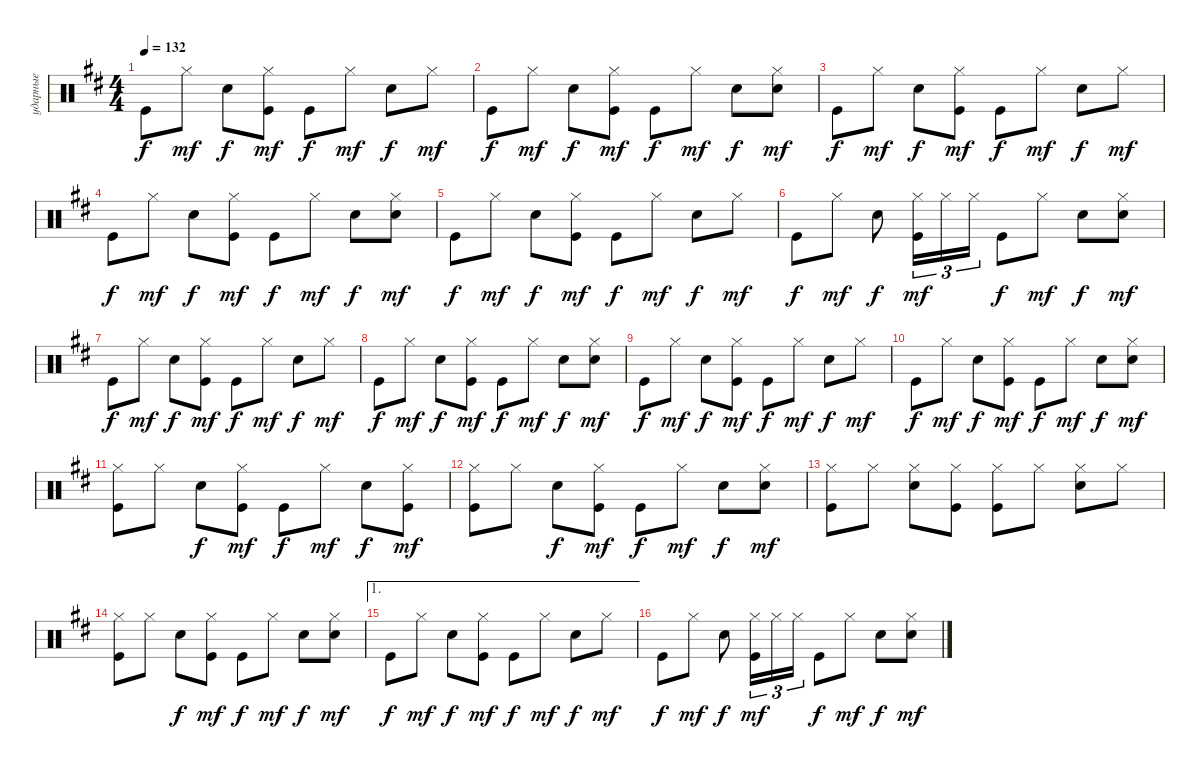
\track ("ударные" "ударные") {instrument percussion}
\staff {score}
\articulation defaults
\ts (4 4)
\tempo 132
\clef neutral
\ks d "Kick (hit)".8{dy f} "Hi-Hat (closed)".8{dy mf} "Snare (hit) 2".8{dy f}
("Kick (hit)" "Hi-Hat (closed)").8{dy mf} "Kick (hit)".8{dy f} "Hi-Hat (closed)".8{dy mf} "Snare (hit) 2".8{dy f} "Hi-Hat (closed)".8{dy mf} |
"Kick (hit)".8{dy f} "Hi-Hat (closed)".8{dy mf} "Snare (hit) 2".8{dy f} ("Kick (hit)" "Hi-Hat (closed)").8{dy mf} "Kick (hit)".8{dy f} "Hi-Hat (closed)".8{dy mf} "Snare (hit) 2".8{dy f} ("Hi-Hat (closed)" "Snare (hit) 2").8{dy mf} |
"Kick (hit)".8{dy f} "Hi-Hat (closed)".8{dy mf} "Snare (hit) 2".8{dy f} ("Kick (hit)" "Hi-Hat (closed)").8{dy mf} "Kick (hit)".8{dy f} "Hi-Hat (closed)".8{dy mf} "Snare (hit) 2".8{dy f} "Hi-Hat (closed)".8{dy mf} |
"Kick (hit)".8{dy f} "Hi-Hat (closed)".8{dy mf} "Snare (hit) 2".8{dy f} ("Kick (hit)" "Hi-Hat (closed)").8{dy mf} "Kick (hit)".8{dy f} "Hi-Hat (closed)".8{dy mf} "Snare (hit) 2".8{dy f} ("Hi-Hat (closed)" "Snare (hit) 2").8{dy mf} |
"Kick (hit)".8{dy f} "Hi-Hat (closed)".8{dy mf} "Snare (hit) 2".8{dy f} ("Kick (hit)" "Hi-Hat (closed)").8{dy mf} "Kick (hit)".8{dy f} "Hi-Hat (closed)".8{dy mf} "Snare (hit) 2".8{dy f} "Hi-Hat (closed)".8{dy mf} |
"Kick (hit)".8{dy f} "Hi-Hat (closed)".8{dy mf} "Snare (hit) 2".8{dy f} ("Kick (hit)" "Hi-Hat (closed)").16{tu (3 2) dy mf} "Hi-Hat (closed)".16{tu (3 2)} "Hi-Hat (closed)".16{tu (3 2)} "Kick (hit)".8{dy f} "Hi-Hat (closed)".8{dy mf} "Snare (hit) 2".8{dy f} ("Hi-Hat (closed)" "Snare (hit) 2").8{dy mf} |
"Kick (hit)".8{dy f} "Hi-Hat (closed)".8{dy mf} "Snare (hit) 2".8{dy f} ("Kick (hit)" "Hi-Hat (closed)").8{dy mf} "Kick (hit)".8{dy f} "Hi-Hat (closed)".8{dy mf} "Snare (hit) 2".8{dy f} "Hi-Hat (closed)".8{dy mf} |
"Kick (hit)".8{dy f} "Hi-Hat (closed)".8{dy mf} "Snare (hit) 2".8{dy f} ("Kick (hit)" "Hi-Hat (closed)").8{dy mf} "Kick (hit)".8{dy f} "Hi-Hat (closed)".8{dy mf} "Snare (hit) 2".8{dy f} ("Hi-Hat (closed)" "Snare (hit) 2").8{dy mf} |
"Kick (hit)".8{dy f} "Hi-Hat (closed)".8{dy mf} "Snare (hit) 2".8{dy f} ("Kick (hit)" "Hi-Hat (closed)").8{dy mf} "Kick (hit)".8{dy f} "Hi-Hat (closed)".8{dy mf} "Snare (hit) 2".8{dy f} "Hi-Hat (closed)".8{dy mf} |
"Kick (hit)".8{dy f} "Hi-Hat (closed)".8{dy mf} "Snare (hit) 2".8{dy f} ("Kick (hit)" "Hi-Hat (closed)").8{dy mf} "Kick (hit)".8{dy f} "Hi-Hat (closed)".8{dy mf} "Snare (hit) 2".8{dy f} ("Hi-Hat (closed)" "Snare (hit) 2").8{dy mf} |
("Kick (hit)" "Hi-Hat (closed)").8 "Hi-Hat (closed)".8 "Snare (hit) 2".8{dy f} ("Kick (hit)" "Hi-Hat (closed)").8{dy mf} "Kick (hit)".8{dy f} "Hi-Hat (closed)".8{dy mf} "Snare (hit) 2".8{dy f} ("Kick (hit)" "Hi-Hat (closed)").8{dy mf} |
("Kick (hit)" "Hi-Hat (closed)").8 "Hi-Hat (closed)".8 "Snare (hit) 2".8{dy f} ("Kick (hit)" "Hi-Hat (closed)").8{dy mf} "Kick (hit)".8{dy f} "Hi-Hat (closed)".8{dy mf} "Snare (hit) 2".8{dy f} ("Hi-Hat (closed)" "Snare (hit) 2").8{dy mf} |
("Kick (hit)" "Hi-Hat (closed)").8 "Hi-Hat (closed)".8 ("Snare (hit) 2" "Hi-Hat (closed)").8 ("Kick (hit)" "Hi-Hat (closed)").8 ("Kick (hit)" "Hi-Hat (closed)").8 "Hi-Hat (closed)".8 ("Snare (hit) 2" "Hi-Hat (closed)").8 "Hi-Hat (closed)".8 |
("Kick (hit)" "Hi-Hat (closed)").8 "Hi-Hat (closed)".8 "Snare (hit) 2".8{dy f} ("Kick (hit)" "Hi-Hat (closed)").8{dy mf} "Kick (hit)".8{dy f} "Hi-Hat (closed)".8{dy mf} "Snare (hit) 2".8{dy f} ("Hi-Hat (closed)" "Snare (hit) 2").8{dy mf} |
\ae 1 "Kick (hit)".8{dy f} "Hi-Hat (closed)".8{dy mf} "Snare (hit) 2".8{dy f}
("Kick (hit)" "Hi-Hat (closed)").8{dy mf} "Kick (hit)".8{dy f} "Hi-Hat (closed)".8{dy mf} "Snare (hit) 2".8{dy f} "Hi-Hat (closed)".8{dy mf} |
"Kick (hit)".8{dy f} "Hi-Hat (closed)".8{dy mf} "Snare (hit) 2".8{dy f} ("Kick (hit)" "Hi-Hat (closed)").16{tu (3 2) dy mf} "Hi-Hat (closed)".16{tu (3 2)} "Hi-Hat (closed)".16{tu (3 2)} "Kick (hit)".8{dy f} "Hi-Hat (closed)".8{dy mf} "Snare (hit) 2".8{dy f} ("Hi-Hat (closed)" "Snare (hit) 2").8{dy mf}
